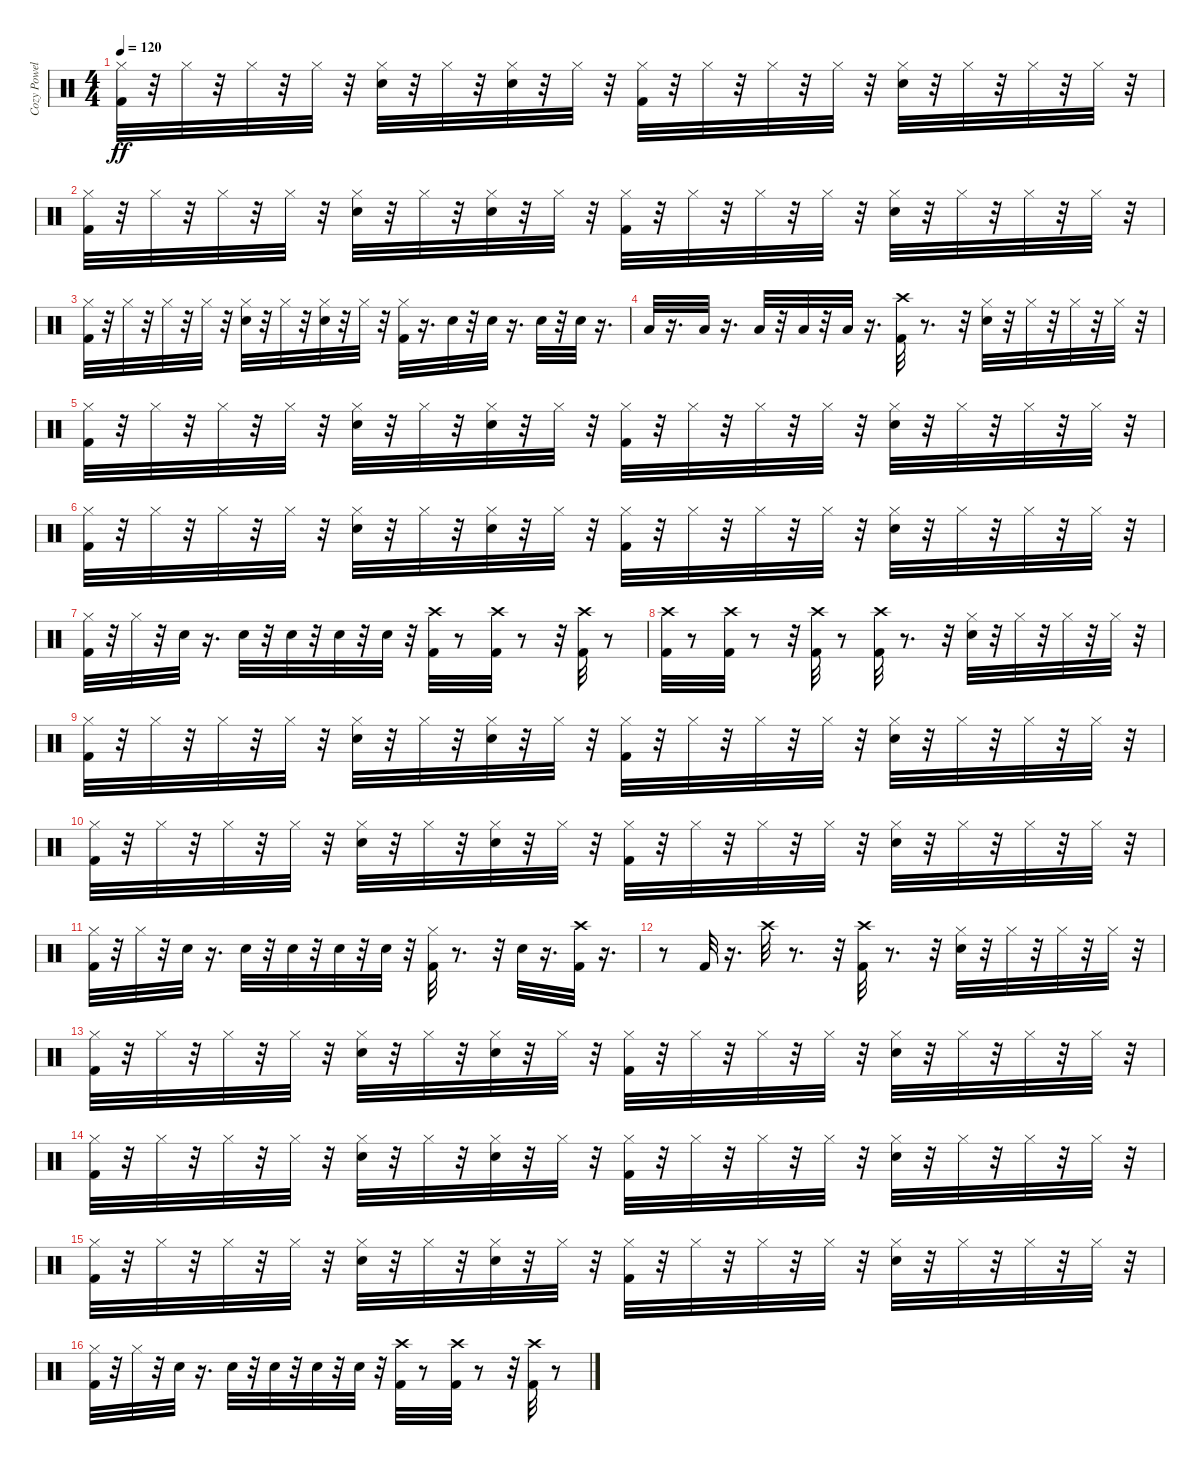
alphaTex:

\track ("Cozy Powel" "Cozy Powel") {instrument percussion}
\staff {score}
\articulation defaults
\ts (4 4)
\tempo 120
\clef neutral
\ks c
("Kick (hit) 2" "Hi-Hat (closed)").32{dy ff} r.32 "Hi-Hat (closed)".32 r.32 "Hi-Hat (closed)".32 r.32 "Hi-Hat (closed)".32 r.32 ("Snare (hit) 2" "Hi-Hat (closed)").32 r.32 "Hi-Hat (closed)".32 r.32 ("Snare (hit) 2" "Hi-Hat (closed)").32 r.32 "Hi-Hat (closed)".32 r.32 ("Kick (hit) 2" "Hi-Hat (closed)").32 r.32 "Hi-Hat (closed)".32 r.32 "Hi-Hat (closed)".32 r.32 "Hi-Hat (closed)".32 r.32 ("Snare (hit) 2" "Hi-Hat (closed)").32 r.32 "Hi-Hat (closed)".32 r.32 "Hi-Hat (closed)".32 r.32 "Hi-Hat (closed)".32 r.32 |
("Kick (hit) 2" "Hi-Hat (closed)").32 r.32 "Hi-Hat (closed)".32 r.32 "Hi-Hat (closed)".32 r.32 "Hi-Hat (closed)".32 r.32 ("Snare (hit) 2" "Hi-Hat (closed)").32 r.32 "Hi-Hat (closed)".32 r.32 ("Snare (hit) 2" "Hi-Hat (closed)").32 r.32 "Hi-Hat (closed)".32 r.32 ("Kick (hit) 2" "Hi-Hat (closed)").32 r.32 "Hi-Hat (closed)".32 r.32 "Hi-Hat (closed)".32 r.32 "Hi-Hat (closed)".32 r.32 ("Snare (hit) 2" "Hi-Hat (closed)").32 r.32 "Hi-Hat (closed)".32 r.32 "Hi-Hat (closed)".32 r.32 "Hi-Hat (closed)".32 r.32 |
("Kick (hit) 2" "Hi-Hat (closed)").32 r.32 "Hi-Hat (closed)".32 r.32 "Hi-Hat (closed)".32 r.32 "Hi-Hat (closed)".32 r.32 ("Snare (hit) 2" "Hi-Hat (closed)").32 r.32 "Hi-Hat (closed)".32 r.32 ("Snare (hit) 2" "Hi-Hat (closed)").32 r.32 "Hi-Hat (closed)".32 r.32 ("Kick (hit) 2" "Hi-Hat (closed)").32 r.16{d} "Snare (hit) 2".32 r.32 "Snare (hit) 2".32 r.16{d} "Snare (hit) 2".32 r.32 "Snare (hit) 2".32 r.16{d} |
"Low Tom (hit)".32 r.16{d} "Low Tom (hit)".32 r.16{d} "Low Tom (hit)".32 r.32 "Low Tom (hit)".32 r.32 "Low Tom (hit)".32 r.16{d} ("Kick (hit) 2" "Crash high (hit)").32 r.8{d} r.32 ("Snare (hit) 2" "Hi-Hat (closed)").32 r.32 "Hi-Hat (closed)".32 r.32 "Hi-Hat (closed)".32 r.32 "Hi-Hat (closed)".32 r.32 |
("Kick (hit) 2" "Hi-Hat (closed)").32 r.32 "Hi-Hat (closed)".32 r.32 "Hi-Hat (closed)".32 r.32 "Hi-Hat (closed)".32 r.32 ("Snare (hit) 2" "Hi-Hat (closed)").32 r.32 "Hi-Hat (closed)".32 r.32 ("Snare (hit) 2" "Hi-Hat (closed)").32 r.32 "Hi-Hat (closed)".32 r.32 ("Kick (hit) 2" "Hi-Hat (closed)").32 r.32 "Hi-Hat (closed)".32 r.32 "Hi-Hat (closed)".32 r.32 "Hi-Hat (closed)".32 r.32 ("Snare (hit) 2" "Hi-Hat (closed)").32 r.32 "Hi-Hat (closed)".32 r.32 "Hi-Hat (closed)".32 r.32 "Hi-Hat (closed)".32 r.32 |
("Kick (hit) 2" "Hi-Hat (closed)").32 r.32 "Hi-Hat (closed)".32 r.32 "Hi-Hat (closed)".32 r.32 "Hi-Hat (closed)".32 r.32 ("Snare (hit) 2" "Hi-Hat (closed)").32 r.32 "Hi-Hat (closed)".32 r.32 ("Snare (hit) 2" "Hi-Hat (closed)").32 r.32 "Hi-Hat (closed)".32 r.32 ("Kick (hit) 2" "Hi-Hat (closed)").32 r.32 "Hi-Hat (closed)".32 r.32 "Hi-Hat (closed)".32 r.32 "Hi-Hat (closed)".32 r.32 ("Snare (hit) 2" "Hi-Hat (closed)").32 r.32 "Hi-Hat (closed)".32 r.32 "Hi-Hat (closed)".32 r.32 "Hi-Hat (closed)".32 r.32 |
("Kick (hit) 2" "Hi-Hat (closed)").32 r.32 "Hi-Hat (closed)".32 r.32 "Snare (hit) 2".32 r.16{d} "Snare (hit) 2".32 r.32 "Snare (hit) 2".32 r.32 "Snare (hit) 2".32 r.32 "Snare (hit) 2".32 r.32 ("Kick (hit) 2" "Crash high (hit)").32 r.8 ("Kick (hit) 2" "Crash high (hit)").32 r.8 r.32 ("Kick (hit) 2" "Crash high (hit)").32 r.8 |
("Kick (hit) 2" "Crash high (hit)").32 r.8 ("Kick (hit) 2" "Crash high (hit)").32 r.8 r.32 ("Kick (hit) 2" "Crash high (hit)").32 r.8 ("Kick (hit) 2" "Crash high (hit)").32 r.8{d} r.32 ("Snare (hit) 2" "Hi-Hat (closed)").32 r.32 "Hi-Hat (closed)".32 r.32 "Hi-Hat (closed)".32 r.32 "Hi-Hat (closed)".32 r.32 |
("Kick (hit) 2" "Hi-Hat (closed)").32 r.32 "Hi-Hat (closed)".32 r.32 "Hi-Hat (closed)".32 r.32 "Hi-Hat (closed)".32 r.32 ("Snare (hit) 2" "Hi-Hat (closed)").32 r.32 "Hi-Hat (closed)".32 r.32 ("Snare (hit) 2" "Hi-Hat (closed)").32 r.32 "Hi-Hat (closed)".32 r.32 ("Kick (hit) 2" "Hi-Hat (closed)").32 r.32 "Hi-Hat (closed)".32 r.32 "Hi-Hat (closed)".32 r.32 "Hi-Hat (closed)".32 r.32 ("Snare (hit) 2" "Hi-Hat (closed)").32 r.32 "Hi-Hat (closed)".32 r.32 "Hi-Hat (closed)".32 r.32 "Hi-Hat (closed)".32 r.32 |
("Kick (hit) 2" "Hi-Hat (closed)").32 r.32 "Hi-Hat (closed)".32 r.32 "Hi-Hat (closed)".32 r.32 "Hi-Hat (closed)".32 r.32 ("Snare (hit) 2" "Hi-Hat (closed)").32 r.32 "Hi-Hat (closed)".32 r.32 ("Snare (hit) 2" "Hi-Hat (closed)").32 r.32 "Hi-Hat (closed)".32 r.32 ("Kick (hit) 2" "Hi-Hat (closed)").32 r.32 "Hi-Hat (closed)".32 r.32 "Hi-Hat (closed)".32 r.32 "Hi-Hat (closed)".32 r.32 ("Snare (hit) 2" "Hi-Hat (closed)").32 r.32 "Hi-Hat (closed)".32 r.32 "Hi-Hat (closed)".32 r.32 "Hi-Hat (closed)".32 r.32 |
("Kick (hit) 2" "Hi-Hat (closed)").32 r.32 "Hi-Hat (closed)".32 r.32 "Snare (hit) 2".32 r.16{d} "Snare (hit) 2".32 r.32 "Snare (hit) 2".32 r.32 "Snare (hit) 2".32 r.32 "Snare (hit) 2".32 r.32 ("Kick (hit) 2" "Hi-Hat (closed)").32 r.8{d} r.32 "Snare (hit) 2".32 r.16{d} ("Crash high (hit)" "Kick (hit) 2").32 r.16{d} |
r.8 "Kick (hit) 2".32 r.16{d} "Crash high (hit)".32 r.8{d} r.32 ("Kick (hit) 2" "Crash high (hit)").32 r.8{d} r.32 ("Snare (hit) 2" "Hi-Hat (closed)").32 r.32 "Hi-Hat (closed)".32 r.32 "Hi-Hat (closed)".32 r.32 "Hi-Hat (closed)".32 r.32 |
("Kick (hit) 2" "Hi-Hat (closed)").32 r.32 "Hi-Hat (closed)".32 r.32 "Hi-Hat (closed)".32 r.32 "Hi-Hat (closed)".32 r.32 ("Snare (hit) 2" "Hi-Hat (closed)").32 r.32 "Hi-Hat (closed)".32 r.32 ("Snare (hit) 2" "Hi-Hat (closed)").32 r.32 "Hi-Hat (closed)".32 r.32 ("Kick (hit) 2" "Hi-Hat (closed)").32 r.32 "Hi-Hat (closed)".32 r.32 "Hi-Hat (closed)".32 r.32 "Hi-Hat (closed)".32 r.32 ("Snare (hit) 2" "Hi-Hat (closed)").32 r.32 "Hi-Hat (closed)".32 r.32 "Hi-Hat (closed)".32 r.32 "Hi-Hat (closed)".32 r.32 |
("Kick (hit) 2" "Hi-Hat (closed)").32 r.32 "Hi-Hat (closed)".32 r.32 "Hi-Hat (closed)".32 r.32 "Hi-Hat (closed)".32 r.32 ("Snare (hit) 2" "Hi-Hat (closed)").32 r.32 "Hi-Hat (closed)".32 r.32 ("Snare (hit) 2" "Hi-Hat (closed)").32 r.32 "Hi-Hat (closed)".32 r.32 ("Kick (hit) 2" "Hi-Hat (closed)").32 r.32 "Hi-Hat (closed)".32 r.32 "Hi-Hat (closed)".32 r.32 "Hi-Hat (closed)".32 r.32 ("Snare (hit) 2" "Hi-Hat (closed)").32 r.32 "Hi-Hat (closed)".32 r.32 "Hi-Hat (closed)".32 r.32 "Hi-Hat (closed)".32 r.32 |
("Kick (hit) 2" "Hi-Hat (closed)").32 r.32 "Hi-Hat (closed)".32 r.32 "Hi-Hat (closed)".32 r.32 "Hi-Hat (closed)".32 r.32 ("Snare (hit) 2" "Hi-Hat (closed)").32 r.32 "Hi-Hat (closed)".32 r.32 ("Snare (hit) 2" "Hi-Hat (closed)").32 r.32 "Hi-Hat (closed)".32 r.32 ("Kick (hit) 2" "Hi-Hat (closed)").32 r.32 "Hi-Hat (closed)".32 r.32 "Hi-Hat (closed)".32 r.32 "Hi-Hat (closed)".32 r.32 ("Snare (hit) 2" "Hi-Hat (closed)").32 r.32 "Hi-Hat (closed)".32 r.32 "Hi-Hat (closed)".32 r.32 "Hi-Hat (closed)".32 r.32 |
("Kick (hit) 2" "Hi-Hat (closed)").32 r.32 "Hi-Hat (closed)".32 r.32 "Snare (hit) 2".32 r.16{d} "Snare (hit) 2".32 r.32 "Snare (hit) 2".32 r.32 "Snare (hit) 2".32 r.32 "Snare (hit) 2".32 r.32 ("Kick (hit) 2" "Crash high (hit)").32 r.8 ("Kick (hit) 2" "Crash high (hit)").32 r.8 r.32 ("Kick (hit) 2" "Crash high (hit)").32 r.8
